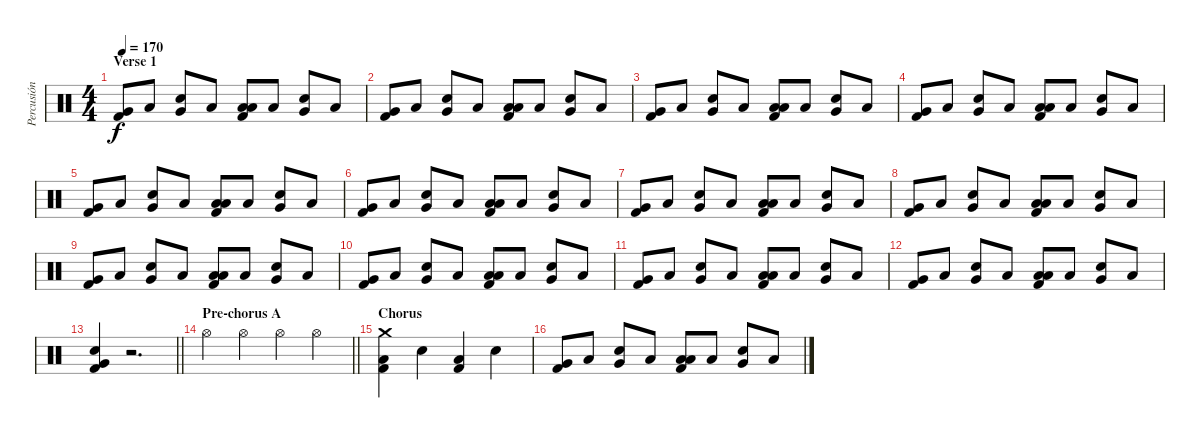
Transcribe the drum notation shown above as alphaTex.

\track ("Percusión" "Percusión") {instrument percussion}
\staff {score}
\articulation defaults
\ts (4 4)
\section ("" "Verse 1")
\tempo 170
\clef neutral
\ks c
("Very Low Tom (hit)" "Kick (hit) 2").8{dy f} "Low Tom (hit)".8 ("Snare (hit) 2" "Very Low Tom (hit)").8 "Low Tom (hit)".8 ("Low Tom (hit)" "Low Floor Tom (hit)" "Kick (hit) 2").8 "Low Tom (hit)".8 ("Snare (hit) 2" "Very Low Tom (hit)").8 "Low Tom (hit)".8 |
("Very Low Tom (hit)" "Kick (hit) 2").8 "Low Tom (hit)".8 ("Snare (hit) 2" "Very Low Tom (hit)").8 "Low Tom (hit)".8 ("Low Tom (hit)" "Low Floor Tom (hit)" "Kick (hit) 2").8 "Low Tom (hit)".8 ("Snare (hit) 2" "Very Low Tom (hit)").8 "Low Tom (hit)".8 |
("Very Low Tom (hit)" "Kick (hit) 2").8 "Low Tom (hit)".8 ("Snare (hit) 2" "Very Low Tom (hit)").8 "Low Tom (hit)".8 ("Low Tom (hit)" "Low Floor Tom (hit)" "Kick (hit) 2").8 "Low Tom (hit)".8 ("Snare (hit) 2" "Very Low Tom (hit)").8 "Low Tom (hit)".8 |
("Very Low Tom (hit)" "Kick (hit) 2").8 "Low Tom (hit)".8 ("Snare (hit) 2" "Very Low Tom (hit)").8 "Low Tom (hit)".8 ("Low Tom (hit)" "Low Floor Tom (hit)" "Kick (hit) 2").8 "Low Tom (hit)".8 ("Snare (hit) 2" "Very Low Tom (hit)").8 "Low Tom (hit)".8 |
("Very Low Tom (hit)" "Kick (hit) 2").8 "Low Tom (hit)".8 ("Snare (hit) 2" "Very Low Tom (hit)").8 "Low Tom (hit)".8 ("Low Tom (hit)" "Low Floor Tom (hit)" "Kick (hit) 2").8 "Low Tom (hit)".8 ("Snare (hit) 2" "Very Low Tom (hit)").8 "Low Tom (hit)".8 |
("Very Low Tom (hit)" "Kick (hit) 2").8 "Low Tom (hit)".8 ("Snare (hit) 2" "Very Low Tom (hit)").8 "Low Tom (hit)".8 ("Low Tom (hit)" "Low Floor Tom (hit)" "Kick (hit) 2").8 "Low Tom (hit)".8 ("Snare (hit) 2" "Very Low Tom (hit)").8 "Low Tom (hit)".8 |
("Very Low Tom (hit)" "Kick (hit) 2").8 "Low Tom (hit)".8 ("Snare (hit) 2" "Very Low Tom (hit)").8 "Low Tom (hit)".8 ("Low Tom (hit)" "Low Floor Tom (hit)" "Kick (hit) 2").8 "Low Tom (hit)".8 ("Snare (hit) 2" "Very Low Tom (hit)").8 "Low Tom (hit)".8 |
("Very Low Tom (hit)" "Kick (hit) 2").8 "Low Tom (hit)".8 ("Snare (hit) 2" "Very Low Tom (hit)").8 "Low Tom (hit)".8 ("Low Tom (hit)" "Low Floor Tom (hit)" "Kick (hit) 2").8 "Low Tom (hit)".8 ("Snare (hit) 2" "Very Low Tom (hit)").8 "Low Tom (hit)".8 |
("Very Low Tom (hit)" "Kick (hit) 2").8 "Low Tom (hit)".8 ("Snare (hit) 2" "Very Low Tom (hit)").8 "Low Tom (hit)".8 ("Low Tom (hit)" "Low Floor Tom (hit)" "Kick (hit) 2").8 "Low Tom (hit)".8 ("Snare (hit) 2" "Very Low Tom (hit)").8 "Low Tom (hit)".8 |
("Very Low Tom (hit)" "Kick (hit) 2").8 "Low Tom (hit)".8 ("Snare (hit) 2" "Very Low Tom (hit)").8 "Low Tom (hit)".8 ("Low Tom (hit)" "Low Floor Tom (hit)" "Kick (hit) 2").8 "Low Tom (hit)".8 ("Snare (hit) 2" "Very Low Tom (hit)").8 "Low Tom (hit)".8 |
("Very Low Tom (hit)" "Kick (hit) 2").8 "Low Tom (hit)".8 ("Snare (hit) 2" "Very Low Tom (hit)").8 "Low Tom (hit)".8 ("Low Tom (hit)" "Low Floor Tom (hit)" "Kick (hit) 2").8 "Low Tom (hit)".8 ("Snare (hit) 2" "Very Low Tom (hit)").8 "Low Tom (hit)".8 |
("Very Low Tom (hit)" "Kick (hit) 2").8 "Low Tom (hit)".8 ("Snare (hit) 2" "Very Low Tom (hit)").8 "Low Tom (hit)".8 ("Low Tom (hit)" "Low Floor Tom (hit)" "Kick (hit) 2").8 "Low Tom (hit)".8 ("Snare (hit) 2" "Very Low Tom (hit)").8 "Low Tom (hit)".8 |
\barLineRight lightlight
("Electric Snare (hit)" "Very Low Tom (hit)" "Kick (hit) 2").4 r.2{d} |
\section ("" "Pre-chorus A")
\barLineRight lightlight "Hi-Hat (open)".4 "Hi-Hat (open)".4 "Hi-Hat (open)".4 "Hi-Hat (open)".4
|
\section ("" "Chorus")
("Crash medium (hit)" "Low Floor Tom (hit)" "Kick (hit) 2").4 "Snare (hit) 2".4 ("Low Floor Tom (hit)" "Kick (hit) 2").4 "Snare (hit) 2".4 |
("Very Low Tom (hit)" "Kick (hit) 2").8 "Low Tom (hit)".8 ("Snare (hit) 2" "Very Low Tom (hit)").8 "Low Tom (hit)".8 ("Low Tom (hit)" "Low Floor Tom (hit)" "Kick (hit) 2").8 "Low Tom (hit)".8 ("Snare (hit) 2" "Very Low Tom (hit)").8 "Low Tom (hit)".8
